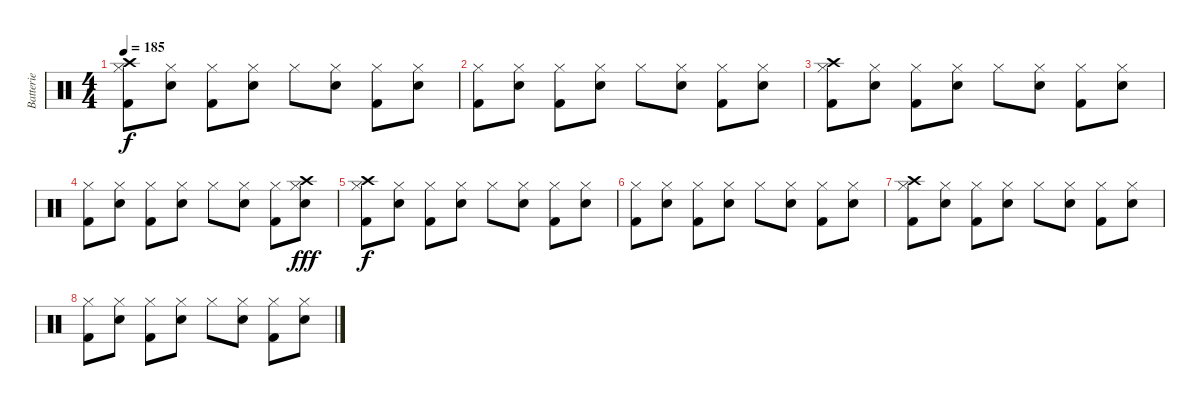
\track ("Batterie" "Batterie") {instrument percussion}
\staff {score}
\articulation defaults
\ts (4 4)
\tempo 185
\clef neutral
\ks c
("Hi-Hat (closed)" "Crash high (hit)" "Kick (hit) 2").8{dy f} ("Hi-Hat (closed)" "Electric Snare (hit)").8 ("Hi-Hat (closed)" "Kick (hit) 2").8 ("Hi-Hat (closed)" "Electric Snare (hit)").8 "Hi-Hat (closed)".8 ("Hi-Hat (closed)" "Electric Snare (hit)").8 ("Hi-Hat (closed)" "Kick (hit) 2").8 ("Hi-Hat (closed)" "Electric Snare (hit)").8 |
("Hi-Hat (closed)" "Kick (hit) 2").8 ("Hi-Hat (closed)" "Electric Snare (hit)").8 ("Hi-Hat (closed)" "Kick (hit) 2").8 ("Hi-Hat (closed)" "Electric Snare (hit)").8 "Hi-Hat (closed)".8 ("Hi-Hat (closed)" "Electric Snare (hit)").8 ("Hi-Hat (closed)" "Kick (hit) 2").8 ("Hi-Hat (closed)" "Electric Snare (hit)").8 |
("Hi-Hat (closed)" "Crash high (hit)" "Kick (hit) 2").8 ("Hi-Hat (closed)" "Electric Snare (hit)").8 ("Hi-Hat (closed)" "Kick (hit) 2").8 ("Hi-Hat (closed)" "Electric Snare (hit)").8 "Hi-Hat (closed)".8 ("Hi-Hat (closed)" "Electric Snare (hit)").8 ("Hi-Hat (closed)" "Kick (hit) 2").8 ("Hi-Hat (closed)" "Electric Snare (hit)").8 |
("Hi-Hat (closed)" "Kick (hit) 2").8 ("Hi-Hat (closed)" "Electric Snare (hit)").8 ("Hi-Hat (closed)" "Kick (hit) 2").8 ("Hi-Hat (closed)" "Electric Snare (hit)").8 "Hi-Hat (closed)".8 ("Hi-Hat (closed)" "Electric Snare (hit)").8 ("Hi-Hat (closed)" "Kick (hit) 2").8 ("Hi-Hat (closed)" "Crash high (hit)" "Electric Snare (hit)").8{dy fff} |
("Hi-Hat (closed)" "Crash high (hit)" "Kick (hit) 2").8{dy f} ("Hi-Hat (closed)" "Electric Snare (hit)").8 ("Hi-Hat (closed)" "Kick (hit) 2").8 ("Hi-Hat (closed)" "Electric Snare (hit)").8 "Hi-Hat (closed)".8 ("Hi-Hat (closed)" "Electric Snare (hit)").8 ("Hi-Hat (closed)" "Kick (hit) 2").8 ("Hi-Hat (closed)" "Electric Snare (hit)").8 |
("Hi-Hat (closed)" "Kick (hit) 2").8 ("Hi-Hat (closed)" "Electric Snare (hit)").8 ("Hi-Hat (closed)" "Kick (hit) 2").8 ("Hi-Hat (closed)" "Electric Snare (hit)").8 "Hi-Hat (closed)".8 ("Hi-Hat (closed)" "Electric Snare (hit)").8 ("Hi-Hat (closed)" "Kick (hit) 2").8 ("Hi-Hat (closed)" "Electric Snare (hit)").8 |
("Hi-Hat (closed)" "Crash high (hit)" "Kick (hit) 2").8 ("Hi-Hat (closed)" "Electric Snare (hit)").8 ("Hi-Hat (closed)" "Kick (hit) 2").8 ("Hi-Hat (closed)" "Electric Snare (hit)").8 "Hi-Hat (closed)".8 ("Hi-Hat (closed)" "Electric Snare (hit)").8 ("Hi-Hat (closed)" "Kick (hit) 2").8 ("Hi-Hat (closed)" "Electric Snare (hit)").8 |
("Hi-Hat (closed)" "Kick (hit) 2").8 ("Hi-Hat (closed)" "Electric Snare (hit)").8 ("Hi-Hat (closed)" "Kick (hit) 2").8 ("Hi-Hat (closed)" "Electric Snare (hit)").8 "Hi-Hat (closed)".8 ("Hi-Hat (closed)" "Electric Snare (hit)").8 ("Hi-Hat (closed)" "Kick (hit) 2").8 ("Hi-Hat (closed)" "Electric Snare (hit)").8
